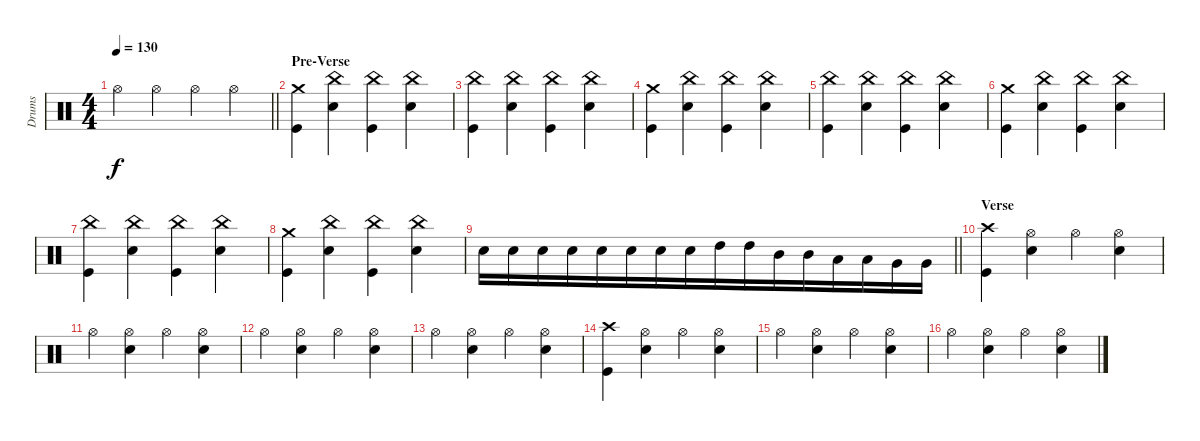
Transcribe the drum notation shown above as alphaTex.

\track ("Drums" "Drums") {instrument percussion}
\staff {score}
\articulation defaults
\ts (4 4)
\tempo 130
\clef neutral
\barLineRight lightlight
\ks c "Hi-Hat (open)".4{dy f} "Hi-Hat (open)".4 "Hi-Hat (open)".4 "Hi-Hat (open)".4
|
\section ("" "Pre-Verse")
("Crash medium (hit)" "Kick (hit)").4{beam merge} ("China (hit)" "Snare (hit) 2").4{beam merge} ("China (hit)" "Kick (hit)").4{beam merge} ("China (hit)" "Snare (hit) 2").4 |
("China (hit)" "Kick (hit)").4{beam merge} ("China (hit)" "Snare (hit) 2").4{beam merge} ("China (hit)" "Kick (hit)").4{beam merge} ("China (hit)" "Snare (hit) 2").4 |
("Crash medium (hit)" "Kick (hit)").4{beam merge} ("China (hit)" "Snare (hit) 2").4{beam merge} ("China (hit)" "Kick (hit)").4{beam merge} ("China (hit)" "Snare (hit) 2").4 |
("China (hit)" "Kick (hit)").4{beam merge} ("China (hit)" "Snare (hit) 2").4{beam merge} ("China (hit)" "Kick (hit)").4{beam merge} ("China (hit)" "Snare (hit) 2").4 |
("Crash medium (hit)" "Kick (hit)").4{beam merge} ("China (hit)" "Snare (hit) 2").4{beam merge} ("China (hit)" "Kick (hit)").4{beam merge} ("China (hit)" "Snare (hit) 2").4 |
("China (hit)" "Kick (hit)").4{beam merge} ("China (hit)" "Snare (hit) 2").4{beam merge} ("China (hit)" "Kick (hit)").4{beam merge} ("China (hit)" "Snare (hit) 2").4 |
("Crash medium (hit)" "Kick (hit)").4{beam merge} ("China (hit)" "Snare (hit) 2").4{beam merge} ("China (hit)" "Kick (hit)").4{beam merge} ("China (hit)" "Snare (hit) 2").4 |
\barLineRight lightlight "Snare (hit) 2".16{beam merge} "Snare (hit) 2".16{beam merge} "Snare (hit) 2".16{beam merge} "Snare (hit) 2".16{beam merge} "Snare (hit) 2".16{beam merge} "Snare (hit) 2".16{beam merge} "Snare (hit) 2".16{beam merge} "Snare (hit) 2".16{beam merge} "High Tom (hit)".16{beam merge} "High Tom (hit)".16{beam merge} "Mid Tom (hit)".16{beam merge} "Mid Tom (hit)".16{beam merge} "Low Tom (hit)".16{beam merge} "Low Tom (hit)".16{beam merge} "Very Low Tom (hit)".16{beam merge} "Very Low Tom (hit)".16
|
\section ("" "Verse")
("Crash high (hit)" "Kick (hit)").4 ("Hi-Hat (open)" "Snare (hit) 2").4 "Hi-Hat (open)".4 ("Hi-Hat (open)" "Snare (hit) 2").4 |
"Hi-Hat (open)".4 ("Hi-Hat (open)" "Snare (hit) 2").4 "Hi-Hat (open)".4 ("Hi-Hat (open)" "Snare (hit) 2").4 |
"Hi-Hat (open)".4 ("Hi-Hat (open)" "Snare (hit) 2").4 "Hi-Hat (open)".4 ("Hi-Hat (open)" "Snare (hit) 2").4 |
"Hi-Hat (open)".4 ("Hi-Hat (open)" "Snare (hit) 2").4 "Hi-Hat (open)".4 ("Hi-Hat (open)" "Snare (hit) 2").4 |
("Crash high (hit)" "Kick (hit)").4 ("Hi-Hat (open)" "Snare (hit) 2").4 "Hi-Hat (open)".4 ("Hi-Hat (open)" "Snare (hit) 2").4 |
"Hi-Hat (open)".4 ("Hi-Hat (open)" "Snare (hit) 2").4 "Hi-Hat (open)".4 ("Hi-Hat (open)" "Snare (hit) 2").4 |
"Hi-Hat (open)".4 ("Hi-Hat (open)" "Snare (hit) 2").4 "Hi-Hat (open)".4 ("Hi-Hat (open)" "Snare (hit) 2").4
